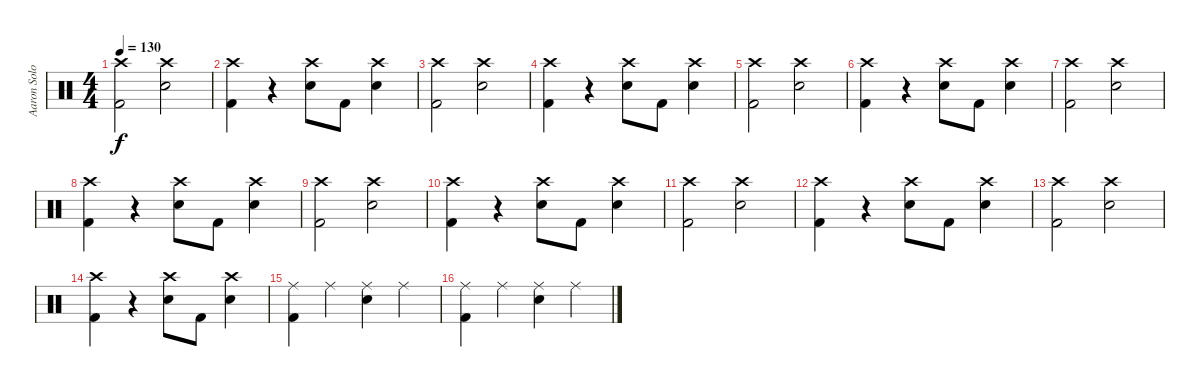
\track ("Aaron Solowoniuk" "Aaron Solo") {instrument percussion}
\staff {score}
\articulation defaults
\ts (4 4)
\tempo 130
\clef neutral
\ks c
("Crash high (hit)" "Kick (hit) 2").2{dy f} ("Crash high (hit)" "Electric Snare (hit)").2 |
("Crash high (hit)" "Kick (hit) 2").4 r.4 ("Crash high (hit)" "Electric Snare (hit)").8 "Kick (hit) 2".8 ("Crash high (hit)" "Electric Snare (hit)").4 |
("Crash high (hit)" "Kick (hit) 2").2 ("Crash high (hit)" "Electric Snare (hit)").2 |
("Crash high (hit)" "Kick (hit) 2").4 r.4 ("Crash high (hit)" "Electric Snare (hit)").8 "Kick (hit) 2".8 ("Crash high (hit)" "Electric Snare (hit)").4 |
("Crash high (hit)" "Kick (hit) 2").2 ("Crash high (hit)" "Electric Snare (hit)").2 |
("Crash high (hit)" "Kick (hit) 2").4 r.4 ("Crash high (hit)" "Electric Snare (hit)").8 "Kick (hit) 2".8 ("Crash high (hit)" "Electric Snare (hit)").4 |
("Crash high (hit)" "Kick (hit) 2").2 ("Crash high (hit)" "Electric Snare (hit)").2 |
("Crash high (hit)" "Kick (hit) 2").4 r.4 ("Crash high (hit)" "Electric Snare (hit)").8 "Kick (hit) 2".8 ("Crash high (hit)" "Electric Snare (hit)").4 |
("Crash high (hit)" "Kick (hit) 2").2 ("Crash high (hit)" "Electric Snare (hit)").2 |
("Crash high (hit)" "Kick (hit) 2").4 r.4 ("Crash high (hit)" "Electric Snare (hit)").8 "Kick (hit) 2".8 ("Crash high (hit)" "Electric Snare (hit)").4 |
("Crash high (hit)" "Kick (hit) 2").2 ("Crash high (hit)" "Electric Snare (hit)").2 |
("Crash high (hit)" "Kick (hit) 2").4 r.4 ("Crash high (hit)" "Electric Snare (hit)").8 "Kick (hit) 2".8 ("Crash high (hit)" "Electric Snare (hit)").4 |
("Crash high (hit)" "Kick (hit) 2").2 ("Crash high (hit)" "Electric Snare (hit)").2 |
("Crash high (hit)" "Kick (hit) 2").4 r.4 ("Crash high (hit)" "Electric Snare (hit)").8 "Kick (hit) 2".8 ("Crash high (hit)" "Electric Snare (hit)").4 |
("Ride (middle)" "Kick (hit) 2").4 "Ride (middle)".4 ("Ride (middle)" "Electric Snare (hit)").4 "Ride (middle)".4 |
("Ride (middle)" "Kick (hit) 2").4 "Ride (middle)".4 ("Ride (middle)" "Electric Snare (hit)").4 "Ride (middle)".4
